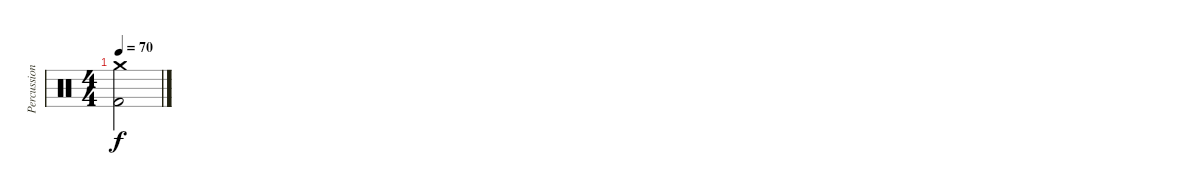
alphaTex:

\track ("Percussions" "Percussion") {instrument percussion}
\staff {score}
\articulation defaults
\ts (4 4)
\tempo 70
\clef neutral
\ks c
("Crash medium (hit)" "Kick (hit) 2").2{dy f}
